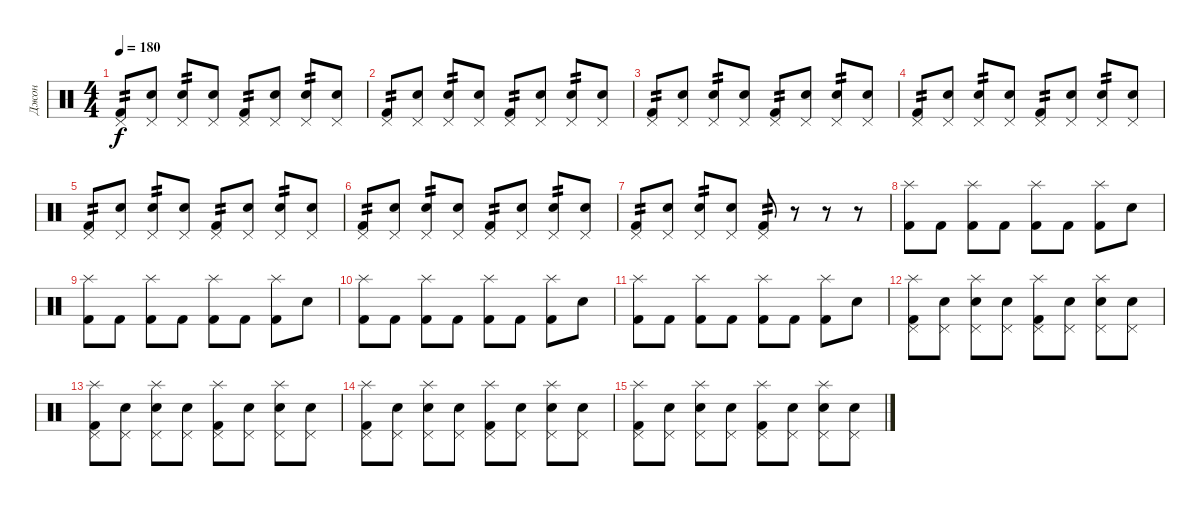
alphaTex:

\track ("Джон" "Джон") {instrument percussion}
\staff {score}
\articulation defaults
\ts (4 4)
\tempo 180
\clef neutral
\ks c
("Pedal Hi-Hat (hit)" "Kick (hit) 2").8{tp 2 dy f} ("Pedal Hi-Hat (hit)" "Snare (hit)").8 ("Pedal Hi-Hat (hit)" "Electric Snare (hit)").8{tp 2} ("Pedal Hi-Hat (hit)" "Snare (hit)").8 ("Pedal Hi-Hat (hit)" "Kick (hit) 2").8{tp 2} ("Pedal Hi-Hat (hit)" "Snare (hit)").8 ("Pedal Hi-Hat (hit)" "Electric Snare (hit)").8{tp 2} ("Pedal Hi-Hat (hit)" "Snare (hit)").8 |
("Pedal Hi-Hat (hit)" "Kick (hit) 2").8{tp 2} ("Pedal Hi-Hat (hit)" "Snare (hit)").8 ("Pedal Hi-Hat (hit)" "Electric Snare (hit)").8{tp 2} ("Pedal Hi-Hat (hit)" "Snare (hit)").8 ("Pedal Hi-Hat (hit)" "Kick (hit) 2").8{tp 2} ("Pedal Hi-Hat (hit)" "Snare (hit)").8 ("Pedal Hi-Hat (hit)" "Electric Snare (hit)").8{tp 2} ("Pedal Hi-Hat (hit)" "Snare (hit)").8 |
("Pedal Hi-Hat (hit)" "Kick (hit) 2").8{tp 2} ("Pedal Hi-Hat (hit)" "Snare (hit)").8 ("Pedal Hi-Hat (hit)" "Electric Snare (hit)").8{tp 2} ("Pedal Hi-Hat (hit)" "Snare (hit)").8 ("Pedal Hi-Hat (hit)" "Kick (hit) 2").8{tp 2} ("Pedal Hi-Hat (hit)" "Snare (hit)").8 ("Pedal Hi-Hat (hit)" "Electric Snare (hit)").8{tp 2} ("Pedal Hi-Hat (hit)" "Electric Snare (hit)").8 |
("Pedal Hi-Hat (hit)" "Kick (hit) 2").8{tp 2} ("Pedal Hi-Hat (hit)" "Snare (hit)").8 ("Pedal Hi-Hat (hit)" "Electric Snare (hit)").8{tp 2} ("Pedal Hi-Hat (hit)" "Snare (hit)").8 ("Pedal Hi-Hat (hit)" "Kick (hit) 2").8{tp 2} ("Pedal Hi-Hat (hit)" "Snare (hit)").8 ("Pedal Hi-Hat (hit)" "Electric Snare (hit)").8{tp 2} ("Pedal Hi-Hat (hit)" "Snare (hit)").8 |
("Pedal Hi-Hat (hit)" "Kick (hit) 2").8{tp 2} ("Pedal Hi-Hat (hit)" "Snare (hit)").8 ("Pedal Hi-Hat (hit)" "Electric Snare (hit)").8{tp 2} ("Pedal Hi-Hat (hit)" "Snare (hit)").8 ("Pedal Hi-Hat (hit)" "Kick (hit) 2").8{tp 2} ("Pedal Hi-Hat (hit)" "Snare (hit)").8 ("Pedal Hi-Hat (hit)" "Electric Snare (hit)").8{tp 2} ("Pedal Hi-Hat (hit)" "Snare (hit)").8 |
("Pedal Hi-Hat (hit)" "Kick (hit) 2").8{tp 2} ("Pedal Hi-Hat (hit)" "Snare (hit)").8 ("Pedal Hi-Hat (hit)" "Electric Snare (hit)").8{tp 2} ("Pedal Hi-Hat (hit)" "Snare (hit)").8 ("Pedal Hi-Hat (hit)" "Kick (hit) 2").8{tp 2} ("Pedal Hi-Hat (hit)" "Snare (hit)").8 ("Pedal Hi-Hat (hit)" "Electric Snare (hit)").8{tp 2} ("Pedal Hi-Hat (hit)" "Snare (hit)").8 |
("Pedal Hi-Hat (hit)" "Kick (hit) 2").8{tp 2} ("Pedal Hi-Hat (hit)" "Snare (hit)").8 ("Pedal Hi-Hat (hit)" "Electric Snare (hit)").8{tp 2} ("Pedal Hi-Hat (hit)" "Snare (hit)").8 ("Pedal Hi-Hat (hit)" "Kick (hit) 2").8{tp 2} r.8 r.8 r.8 |
("Splash (hit)" "Kick (hit) 2").8 "Kick (hit) 2".8 ("Splash (hit)" "Kick (hit) 2").8 "Kick (hit) 2".8 ("Splash (hit)" "Kick (hit) 2").8 "Kick (hit) 2".8 ("Splash (hit)" "Kick (hit) 2").8 "Snare (hit)".8 |
("Splash (hit)" "Kick (hit) 2").8 "Kick (hit) 2".8 ("Splash (hit)" "Kick (hit) 2").8 "Kick (hit) 2".8 ("Splash (hit)" "Kick (hit) 2").8 "Kick (hit) 2".8 ("Splash (hit)" "Kick (hit) 2").8 "Snare (hit)".8 |
("Splash (hit)" "Kick (hit) 2").8 "Kick (hit) 2".8 ("Splash (hit)" "Kick (hit) 2").8 "Kick (hit) 2".8 ("Splash (hit)" "Kick (hit) 2").8 "Kick (hit) 2".8 ("Splash (hit)" "Kick (hit) 2").8 "Snare (hit)".8 |
("Splash (hit)" "Kick (hit) 2").8 "Kick (hit) 2".8 ("Splash (hit)" "Kick (hit) 2").8 "Kick (hit) 2".8 ("Splash (hit)" "Kick (hit) 2").8 "Kick (hit) 2".8 ("Splash (hit)" "Kick (hit) 2").8 "Snare (hit)".8 |
("Splash (hit)" "Pedal Hi-Hat (hit)" "Kick (hit) 2").8 ("Pedal Hi-Hat (hit)" "Snare (hit)").8 ("Splash (hit)" "Pedal Hi-Hat (hit)" "Electric Snare (hit)").8 ("Pedal Hi-Hat (hit)" "Snare (hit)").8 ("Splash (hit)" "Pedal Hi-Hat (hit)" "Kick (hit) 2").8 ("Pedal Hi-Hat (hit)" "Snare (hit)").8 ("Splash (hit)" "Pedal Hi-Hat (hit)" "Electric Snare (hit)").8 ("Pedal Hi-Hat (hit)" "Snare (hit)").8 |
("Splash (hit)" "Pedal Hi-Hat (hit)" "Kick (hit) 2").8 ("Pedal Hi-Hat (hit)" "Snare (hit)").8 ("Splash (hit)" "Pedal Hi-Hat (hit)" "Electric Snare (hit)").8 ("Pedal Hi-Hat (hit)" "Snare (hit)").8 ("Splash (hit)" "Pedal Hi-Hat (hit)" "Kick (hit) 2").8 ("Pedal Hi-Hat (hit)" "Snare (hit)").8 ("Splash (hit)" "Pedal Hi-Hat (hit)" "Electric Snare (hit)").8 ("Pedal Hi-Hat (hit)" "Snare (hit)").8 |
("Splash (hit)" "Pedal Hi-Hat (hit)" "Kick (hit) 2").8 ("Pedal Hi-Hat (hit)" "Snare (hit)").8 ("Splash (hit)" "Pedal Hi-Hat (hit)" "Electric Snare (hit)").8 ("Pedal Hi-Hat (hit)" "Snare (hit)").8 ("Splash (hit)" "Pedal Hi-Hat (hit)" "Kick (hit) 2").8 ("Pedal Hi-Hat (hit)" "Snare (hit)").8 ("Splash (hit)" "Pedal Hi-Hat (hit)" "Electric Snare (hit)").8 ("Pedal Hi-Hat (hit)" "Snare (hit)").8 |
("Splash (hit)" "Pedal Hi-Hat (hit)" "Kick (hit) 2").8 ("Pedal Hi-Hat (hit)" "Snare (hit)").8 ("Splash (hit)" "Pedal Hi-Hat (hit)" "Electric Snare (hit)").8 ("Pedal Hi-Hat (hit)" "Snare (hit)").8 ("Splash (hit)" "Pedal Hi-Hat (hit)" "Kick (hit) 2").8 ("Pedal Hi-Hat (hit)" "Snare (hit)").8 ("Splash (hit)" "Pedal Hi-Hat (hit)" "Electric Snare (hit)").8 ("Pedal Hi-Hat (hit)" "Snare (hit)").8
